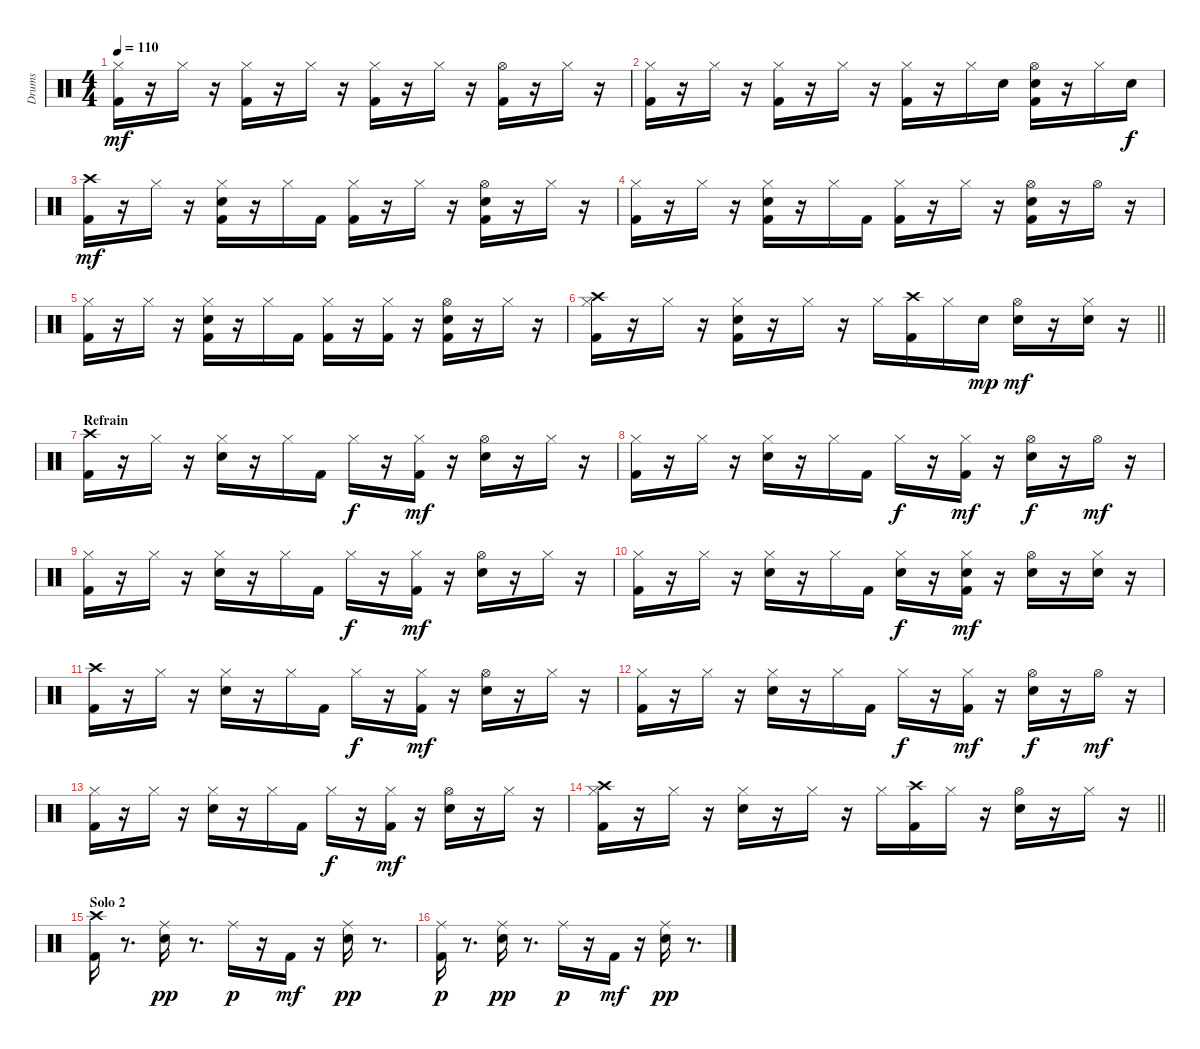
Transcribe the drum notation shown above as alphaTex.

\track ("Drums" "Drums") {instrument percussion}
\staff {score}
\articulation defaults
\ts (4 4)
\tempo 110
\clef neutral
\ks c
("Kick (hit) 2" "Hi-Hat (closed)").16{dy mf} r.16 "Hi-Hat (closed)".16 r.16 ("Kick (hit) 2" "Hi-Hat (closed)").16 r.16 "Hi-Hat (closed)".16 r.16 ("Kick (hit) 2" "Hi-Hat (closed)").16 r.16 "Hi-Hat (closed)".16 r.16 ("Kick (hit) 2" "Hi-Hat (open)").16 r.16 "Hi-Hat (closed)".16 r.16 |
("Kick (hit) 2" "Hi-Hat (closed)").16 r.16 "Hi-Hat (closed)".16 r.16 ("Kick (hit) 2" "Hi-Hat (closed)").16 r.16 "Hi-Hat (closed)".16 r.16 ("Kick (hit) 2" "Hi-Hat (closed)").16 r.16 "Hi-Hat (closed)".16 "Snare (hit) 2".16 ("Kick (hit) 2" "Snare (hit) 2" "Hi-Hat (open)").16 r.16 "Hi-Hat (closed)".16 "Snare (hit) 2".16{dy f} |
("Kick (hit) 2" "Crash high (hit)").16{dy mf} r.16 "Hi-Hat (closed)".16 r.16 ("Kick (hit) 2" "Snare (hit) 2" "Hi-Hat (closed)").16 r.16 "Hi-Hat (closed)".16 "Kick (hit) 2".16 ("Kick (hit) 2" "Hi-Hat (closed)").16 r.16 "Hi-Hat (closed)".16 r.16 ("Kick (hit) 2" "Snare (hit) 2" "Hi-Hat (open)").16 r.16 "Hi-Hat (closed)".16 r.16 |
("Kick (hit) 2" "Hi-Hat (closed)").16 r.16 "Hi-Hat (closed)".16 r.16 ("Kick (hit) 2" "Snare (hit) 2" "Hi-Hat (closed)").16 r.16 "Hi-Hat (closed)".16 "Kick (hit) 2".16 ("Kick (hit) 2" "Hi-Hat (closed)").16 r.16 "Hi-Hat (closed)".16 r.16 ("Kick (hit) 2" "Snare (hit) 2" "Hi-Hat (open)").16 r.16 "Hi-Hat (open)".16 r.16 |
("Kick (hit) 2" "Hi-Hat (closed)").16 r.16 "Hi-Hat (closed)".16 r.16 ("Kick (hit) 2" "Snare (hit) 2" "Hi-Hat (closed)").16 r.16 "Hi-Hat (closed)".16 "Kick (hit) 2".16 ("Kick (hit) 2" "Hi-Hat (closed)").16 r.16 ("Kick (hit) 2" "Hi-Hat (closed)").16 r.16 ("Kick (hit) 2" "Snare (hit) 2" "Hi-Hat (open)").16 r.16 "Hi-Hat (closed)".16 r.16 |
\barLineRight lightlight
("Kick (hit) 2" "Hi-Hat (closed)" "Crash high (hit)").16 r.16 "Hi-Hat (closed)".16 r.16 ("Kick (hit) 2" "Snare (hit) 2" "Hi-Hat (closed)").16 r.16 "Hi-Hat (closed)".16 r.16 "Hi-Hat (closed)".16 ("Kick (hit) 2" "Crash high (hit)").16 "Hi-Hat (closed)".16 "Snare (hit) 2".16{dy mp} ("Snare (hit) 2" "Hi-Hat (open)").16{dy mf} r.16 ("Snare (hit) 2" "Hi-Hat (closed)").16 r.16 |
\section ("" "Refrain")
("Kick (hit) 2" "Crash high (hit)").16 r.16 "Hi-Hat (closed)".16 r.16 ("Snare (hit) 2" "Hi-Hat (closed)").16 r.16 "Hi-Hat (closed)".16 "Kick (hit) 2".16 "Hi-Hat (closed)".16{dy f} r.16 ("Kick (hit) 2" "Hi-Hat (closed)").16{dy mf} r.16 ("Snare (hit) 2" "Hi-Hat (open)").16 r.16 "Hi-Hat (closed)".16 r.16 |
("Kick (hit) 2" "Hi-Hat (closed)").16 r.16 "Hi-Hat (closed)".16 r.16 ("Snare (hit) 2" "Hi-Hat (closed)").16 r.16 "Hi-Hat (closed)".16 "Kick (hit) 2".16 "Hi-Hat (closed)".16{dy f} r.16 ("Kick (hit) 2" "Hi-Hat (closed)").16{dy mf} r.16 ("Snare (hit) 2" "Hi-Hat (open)").16{dy f} r.16 "Hi-Hat (open)".16{dy mf} r.16 |
("Kick (hit) 2" "Hi-Hat (closed)").16 r.16 "Hi-Hat (closed)".16 r.16 ("Snare (hit) 2" "Hi-Hat (closed)").16 r.16 "Hi-Hat (closed)".16 "Kick (hit) 2".16 "Hi-Hat (closed)".16{dy f} r.16 ("Kick (hit) 2" "Hi-Hat (closed)").16{dy mf} r.16 ("Snare (hit) 2" "Hi-Hat (open)").16 r.16 "Hi-Hat (closed)".16 r.16 |
("Kick (hit) 2" "Hi-Hat (closed)").16 r.16 "Hi-Hat (closed)".16 r.16 ("Snare (hit) 2" "Hi-Hat (closed)").16 r.16 "Hi-Hat (closed)".16 "Kick (hit) 2".16 ("Snare (hit) 2" "Hi-Hat (closed)").16{dy f} r.16 ("Kick (hit) 2" "Snare (hit) 2" "Hi-Hat (closed)").16{dy mf} r.16 ("Snare (hit) 2" "Hi-Hat (open)").16 r.16 ("Snare (hit) 2" "Hi-Hat (closed)").16 r.16 |
("Kick (hit) 2" "Crash high (hit)").16 r.16 "Hi-Hat (closed)".16 r.16 ("Snare (hit) 2" "Hi-Hat (closed)").16 r.16 "Hi-Hat (closed)".16 "Kick (hit) 2".16 "Hi-Hat (closed)".16{dy f} r.16 ("Kick (hit) 2" "Hi-Hat (closed)").16{dy mf} r.16 ("Snare (hit) 2" "Hi-Hat (open)").16 r.16 "Hi-Hat (closed)".16 r.16 |
("Kick (hit) 2" "Hi-Hat (closed)").16 r.16 "Hi-Hat (closed)".16 r.16 ("Snare (hit) 2" "Hi-Hat (closed)").16 r.16 "Hi-Hat (closed)".16 "Kick (hit) 2".16 "Hi-Hat (closed)".16{dy f} r.16 ("Kick (hit) 2" "Hi-Hat (closed)").16{dy mf} r.16 ("Snare (hit) 2" "Hi-Hat (open)").16{dy f} r.16 "Hi-Hat (open)".16{dy mf} r.16 |
("Kick (hit) 2" "Hi-Hat (closed)").16 r.16 "Hi-Hat (closed)".16 r.16 ("Snare (hit) 2" "Hi-Hat (closed)").16 r.16 "Hi-Hat (closed)".16 "Kick (hit) 2".16 "Hi-Hat (closed)".16{dy f} r.16 ("Kick (hit) 2" "Hi-Hat (closed)").16{dy mf} r.16 ("Snare (hit) 2" "Hi-Hat (open)").16 r.16 "Hi-Hat (closed)".16 r.16 |
\barLineRight lightlight
("Kick (hit) 2" "Hi-Hat (closed)" "Crash high (hit)").16 r.16 "Hi-Hat (closed)".16 r.16 ("Snare (hit) 2" "Hi-Hat (closed)").16 r.16 "Hi-Hat (closed)".16 r.16 "Hi-Hat (closed)".16 ("Kick (hit) 2" "Crash high (hit)").16 "Hi-Hat (closed)".16 r.16 ("Snare (hit) 2" "Hi-Hat (open)").16 r.16 "Hi-Hat (closed)".16 r.16 |
\section ("" "Solo 2")
("Kick (hit) 2" "Crash high (hit)").16 r.8{d} ("Snare (hit) 2" "Ride (middle)").16{dy pp} r.8{d} "Ride (middle)".16{dy p} r.16 "Kick (hit) 2".16{dy mf} r.16 ("Snare (hit) 2" "Ride (middle)").16{dy pp} r.8{d} |
("Kick (hit) 2" "Ride (middle)").16{dy p} r.8{d} ("Snare (hit) 2" "Ride (middle)").16{dy pp} r.8{d} "Ride (middle)".16{dy p} r.16 "Kick (hit) 2".16{dy mf} r.16 ("Snare (hit) 2" "Ride (middle)").16{dy pp} r.8{d}
